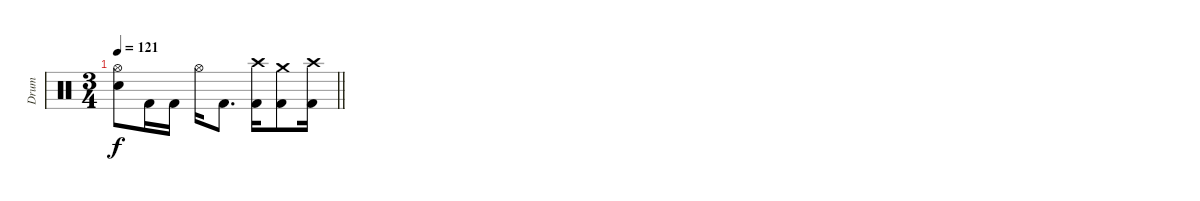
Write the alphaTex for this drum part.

\track ("Drum" "Drum") {instrument percussion}
\staff
\articulation defaults
\ts (3 4)
\tempo 121
\clef neutral
\barLineRight lightlight
\ks c
("Electric Snare (hit)" "Hi-Hat (open)").8{dy f} "Kick (hit) 2".16 "Kick (hit) 2".16 "Hi-Hat (open)".16 "Kick (hit) 2".8{d} ("Kick (hit) 2" "Crash high (hit)").16 ("Kick (hit) 2" "Crash medium (hit)").8 ("Kick (hit) 2" "Crash high (hit)").16
